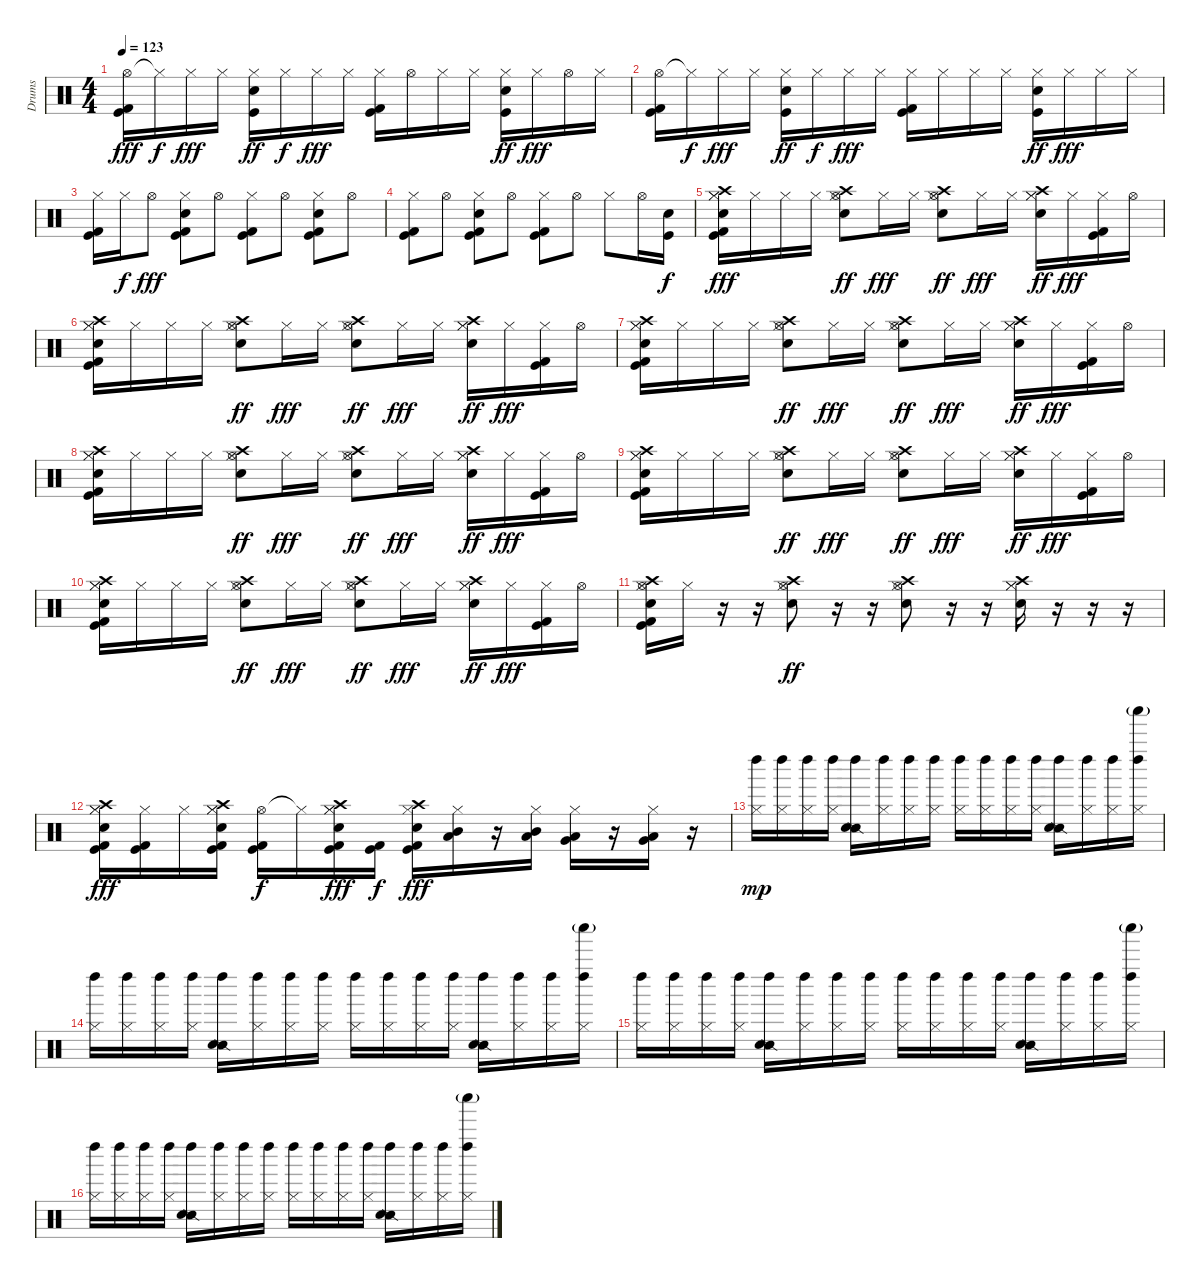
\track ("Drums" "Drums") {instrument percussion}
\staff {score}
\articulation defaults
\ts (4 4)
\tempo 123
\clef neutral
\ks c
("Hi-Hat (open)" "Kick (hit) 2" "Kick (hit)").16{dy fff} "Hi-Hat (closed)"{t}.16{dy f} "Hi-Hat (closed)".16{dy fff} "Hi-Hat (closed)".16 ("Hi-Hat (closed)" "Snare (hit) 2" "Kick (hit)").16{dy ff} "Hi-Hat (closed)".16{dy f} "Hi-Hat (closed)".16{dy fff} "Hi-Hat (closed)".16 ("Hi-Hat (closed)" "Kick (hit) 2" "Kick (hit)").16 "Hi-Hat (open)".16 "Hi-Hat (closed)".16 "Hi-Hat (closed)".16 ("Hi-Hat (closed)" "Snare (hit) 2" "Kick (hit)").16{dy ff} "Hi-Hat (closed)".16{dy fff} "Hi-Hat (open)".16 "Hi-Hat (closed)".16 |
("Hi-Hat (open)" "Kick (hit) 2" "Kick (hit)").16 "Hi-Hat (closed)"{t}.16{dy f} "Hi-Hat (closed)".16{dy fff} "Hi-Hat (closed)".16 ("Hi-Hat (closed)" "Snare (hit) 2" "Kick (hit)").16{dy ff} "Hi-Hat (closed)".16{dy f} "Hi-Hat (closed)".16{dy fff} "Hi-Hat (closed)".16 ("Hi-Hat (closed)" "Kick (hit) 2" "Kick (hit)").16 "Hi-Hat (closed)".16 "Hi-Hat (closed)".16 "Hi-Hat (closed)".16 ("Hi-Hat (closed)" "Snare (hit) 2" "Kick (hit)").16{dy ff} "Hi-Hat (closed)".16{dy fff} "Hi-Hat (closed)".16 "Hi-Hat (closed)".16 |
("Hi-Hat (closed)" "Kick (hit)" "Kick (hit) 2").16 "Hi-Hat (closed)".16{dy f} "Hi-Hat (open)".8{dy fff} ("Hi-Hat (closed)" "Snare (hit) 2" "Kick (hit)" "Kick (hit) 2").8 "Hi-Hat (open)".8 ("Hi-Hat (closed)" "Kick (hit)" "Kick (hit) 2").8 "Hi-Hat (open)".8 ("Hi-Hat (closed)" "Snare (hit) 2" "Kick (hit)" "Kick (hit) 2").8 "Hi-Hat (open)".8 |
("Hi-Hat (closed)" "Kick (hit)" "Kick (hit) 2").8 "Hi-Hat (open)".8 ("Hi-Hat (closed)" "Snare (hit) 2" "Kick (hit)" "Kick (hit) 2").8 "Hi-Hat (open)".8 ("Hi-Hat (closed)" "Kick (hit)" "Kick (hit) 2").8 "Hi-Hat (open)".8 "Hi-Hat (closed)".8 "Hi-Hat (open)".16 ("Snare (hit) 2" "Kick (hit)").16{dy f} |
("Crash high (hit)" "Hi-Hat (closed)" "Hi-Hat (closed)" "Snare (hit) 2" "Kick (hit)" "Kick (hit) 2").16{dy fff} "Hi-Hat (closed)".16 "Hi-Hat (closed)".16 "Hi-Hat (closed)".16 ("Crash high (hit)" "Hi-Hat (closed)" "Hi-Hat (open)" "Snare (hit) 2").8{dy ff} "Hi-Hat (closed)".16{dy fff} "Hi-Hat (closed)".16 ("Crash high (hit)" "Hi-Hat (closed)" "Hi-Hat (open)" "Snare (hit) 2").8{dy ff} "Hi-Hat (closed)".16{dy fff} "Hi-Hat (closed)".16 ("Crash high (hit)" "Hi-Hat (closed)" "Hi-Hat (closed)" "Snare (hit) 2").16{dy ff} "Hi-Hat (closed)".16{dy fff} ("Hi-Hat (closed)" "Kick (hit)" "Kick (hit) 2").16 "Hi-Hat (open)".16 |
("Crash high (hit)" "Hi-Hat (closed)" "Hi-Hat (closed)" "Snare (hit) 2" "Kick (hit)" "Kick (hit) 2").16 "Hi-Hat (closed)".16 "Hi-Hat (closed)".16 "Hi-Hat (closed)".16 ("Crash high (hit)" "Hi-Hat (closed)" "Hi-Hat (open)" "Snare (hit) 2").8{dy ff} "Hi-Hat (closed)".16{dy fff} "Hi-Hat (closed)".16 ("Crash high (hit)" "Hi-Hat (closed)" "Hi-Hat (open)" "Snare (hit) 2").8{dy ff} "Hi-Hat (closed)".16{dy fff} "Hi-Hat (closed)".16 ("Crash high (hit)" "Hi-Hat (closed)" "Hi-Hat (closed)" "Snare (hit) 2").16{dy ff} "Hi-Hat (closed)".16{dy fff} ("Hi-Hat (closed)" "Kick (hit)" "Kick (hit) 2").16 "Hi-Hat (open)".16 |
("Crash high (hit)" "Hi-Hat (closed)" "Hi-Hat (closed)" "Snare (hit) 2" "Kick (hit)" "Kick (hit) 2").16 "Hi-Hat (closed)".16 "Hi-Hat (closed)".16 "Hi-Hat (closed)".16 ("Crash high (hit)" "Hi-Hat (closed)" "Hi-Hat (open)" "Snare (hit) 2").8{dy ff} "Hi-Hat (closed)".16{dy fff} "Hi-Hat (closed)".16 ("Crash high (hit)" "Hi-Hat (closed)" "Hi-Hat (open)" "Snare (hit) 2").8{dy ff} "Hi-Hat (closed)".16{dy fff} "Hi-Hat (closed)".16 ("Crash high (hit)" "Hi-Hat (closed)" "Hi-Hat (closed)" "Snare (hit) 2").16{dy ff} "Hi-Hat (closed)".16{dy fff} ("Hi-Hat (closed)" "Kick (hit)" "Kick (hit) 2").16 "Hi-Hat (open)".16 |
("Crash high (hit)" "Hi-Hat (closed)" "Hi-Hat (closed)" "Snare (hit) 2" "Kick (hit)" "Kick (hit) 2").16 "Hi-Hat (closed)".16 "Hi-Hat (closed)".16 "Hi-Hat (closed)".16 ("Crash high (hit)" "Hi-Hat (closed)" "Hi-Hat (open)" "Snare (hit) 2").8{dy ff} "Hi-Hat (closed)".16{dy fff} "Hi-Hat (closed)".16 ("Crash high (hit)" "Hi-Hat (closed)" "Hi-Hat (open)" "Snare (hit) 2").8{dy ff} "Hi-Hat (closed)".16{dy fff} "Hi-Hat (closed)".16 ("Crash high (hit)" "Hi-Hat (closed)" "Hi-Hat (closed)" "Snare (hit) 2").16{dy ff} "Hi-Hat (closed)".16{dy fff} ("Hi-Hat (closed)" "Kick (hit)" "Kick (hit) 2").16 "Hi-Hat (open)".16 |
("Crash high (hit)" "Hi-Hat (closed)" "Hi-Hat (closed)" "Snare (hit) 2" "Kick (hit)" "Kick (hit) 2").16 "Hi-Hat (closed)".16 "Hi-Hat (closed)".16 "Hi-Hat (closed)".16 ("Crash high (hit)" "Hi-Hat (closed)" "Hi-Hat (open)" "Snare (hit) 2").8{dy ff} "Hi-Hat (closed)".16{dy fff} "Hi-Hat (closed)".16 ("Crash high (hit)" "Hi-Hat (closed)" "Hi-Hat (open)" "Snare (hit) 2").8{dy ff} "Hi-Hat (closed)".16{dy fff} "Hi-Hat (closed)".16 ("Crash high (hit)" "Hi-Hat (closed)" "Hi-Hat (closed)" "Snare (hit) 2").16{dy ff} "Hi-Hat (closed)".16{dy fff} ("Hi-Hat (closed)" "Kick (hit)" "Kick (hit) 2").16 "Hi-Hat (open)".16 |
("Crash high (hit)" "Hi-Hat (closed)" "Hi-Hat (closed)" "Snare (hit) 2" "Kick (hit)" "Kick (hit) 2").16 "Hi-Hat (closed)".16 "Hi-Hat (closed)".16 "Hi-Hat (closed)".16 ("Crash high (hit)" "Hi-Hat (closed)" "Hi-Hat (open)" "Snare (hit) 2").8{dy ff} "Hi-Hat (closed)".16{dy fff} "Hi-Hat (closed)".16 ("Crash high (hit)" "Hi-Hat (closed)" "Hi-Hat (open)" "Snare (hit) 2").8{dy ff} "Hi-Hat (closed)".16{dy fff} "Hi-Hat (closed)".16 ("Crash high (hit)" "Hi-Hat (closed)" "Hi-Hat (closed)" "Snare (hit) 2").16{dy ff} "Hi-Hat (closed)".16{dy fff} ("Hi-Hat (closed)" "Kick (hit)" "Kick (hit) 2").16 "Hi-Hat (open)".16 |
("Crash high (hit)" "Hi-Hat (closed)" "Hi-Hat (open)" "Snare (hit) 2" "Kick (hit)" "Kick (hit) 2").16 "Hi-Hat (closed)".16 r.16 r.16 ("Crash high (hit)" "Hi-Hat (closed)" "Hi-Hat (open)" "Snare (hit) 2").8{dy ff} r.16 r.16 ("Crash high (hit)" "Hi-Hat (closed)" "Hi-Hat (open)" "Snare (hit) 2").8 r.16 r.16 ("Crash high (hit)" "Hi-Hat (closed)" "Hi-Hat (closed)" "Snare (hit) 2").16 r.16 r.16 r.16 |
("Crash high (hit)" "Hi-Hat (closed)" "Hi-Hat (closed)" "Snare (hit) 2" "Kick (hit)" "Kick (hit) 2").16{dy fff} ("Hi-Hat (closed)" "Kick (hit)" "Kick (hit) 2").16 "Hi-Hat (closed)".16 ("Crash high (hit)" "Hi-Hat (closed)" "Hi-Hat (closed)" "Snare (hit) 2" "Kick (hit)" "Kick (hit) 2").16 ("Hi-Hat (open)" "Kick (hit)" "Kick (hit) 2").16{dy f} "Hi-Hat (closed)"{t}.16 ("Crash high (hit)" "Hi-Hat (closed)" "Hi-Hat (closed)" "Snare (hit) 2" "Kick (hit)" "Kick (hit) 2").16{dy fff} ("Kick (hit)" "Kick (hit) 2").16{dy f} ("Crash high (hit)" "Hi-Hat (closed)" "Snare (hit) 2" "Kick (hit)" "Kick (hit) 2").16{dy fff} ("Hi-Hat (closed)" "Mid Tom (hit)" "Low Tom (hit)").16 r.16 ("Hi-Hat (closed)" "Mid Tom (hit)" "Low Tom (hit)").16 ("Hi-Hat (closed)" "Very Low Tom (hit)" "Low Tom (hit)").16 r.16 ("Hi-Hat (closed)" "Very Low Tom (hit)" "Low Tom (hit)").16 r.16 |
("Left Maraca (hit)" "Hi-Hat (closed)").16{dy mp volume 13} ("Left Maraca (hit)" "Hi-Hat (closed)").16 ("Left Maraca (hit)" "Hi-Hat (closed)").16 ("Left Maraca (hit)" "Hi-Hat (closed)").16 ("Left Maraca (hit)" "Snare (side stick) 2" "Hand Clap (hit)").16 ("Left Maraca (hit)" "Hi-Hat (closed)").16 ("Left Maraca (hit)" "Hi-Hat (closed)").16 ("Left Maraca (hit)" "Hi-Hat (closed)").16 ("Left Maraca (hit)" "Hi-Hat (closed)").16 ("Left Maraca (hit)" "Hi-Hat (closed)").16 ("Left Maraca (hit)" "Hi-Hat (closed)").16 ("Left Maraca (hit)" "Hi-Hat (closed)").16 ("Left Maraca (hit)" "Snare (side stick) 2" "Hand Clap (hit)").16 ("Left Maraca (hit)" "Hi-Hat (closed)").16 ("Left Maraca (hit)" "Hi-Hat (closed)").16 ("Shaker (hit)"{g} "Left Maraca (hit)" "Hi-Hat (closed)").16 |
("Left Maraca (hit)" "Hi-Hat (closed)").16 ("Left Maraca (hit)" "Hi-Hat (closed)").16 ("Left Maraca (hit)" "Hi-Hat (closed)").16 ("Left Maraca (hit)" "Hi-Hat (closed)").16 ("Left Maraca (hit)" "Snare (side stick) 2" "Hand Clap (hit)").16 ("Left Maraca (hit)" "Hi-Hat (closed)").16 ("Left Maraca (hit)" "Hi-Hat (closed)").16 ("Left Maraca (hit)" "Hi-Hat (closed)").16 ("Left Maraca (hit)" "Hi-Hat (closed)").16 ("Left Maraca (hit)" "Hi-Hat (closed)").16 ("Left Maraca (hit)" "Hi-Hat (closed)").16 ("Left Maraca (hit)" "Hi-Hat (closed)").16 ("Left Maraca (hit)" "Snare (side stick) 2" "Hand Clap (hit)").16 ("Left Maraca (hit)" "Hi-Hat (closed)").16 ("Left Maraca (hit)" "Hi-Hat (closed)").16 ("Shaker (hit)"{g} "Left Maraca (hit)" "Hi-Hat (closed)").16 |
("Left Maraca (hit)" "Hi-Hat (closed)").16 ("Left Maraca (hit)" "Hi-Hat (closed)").16 ("Left Maraca (hit)" "Hi-Hat (closed)").16 ("Left Maraca (hit)" "Hi-Hat (closed)").16 ("Left Maraca (hit)" "Snare (side stick) 2" "Hand Clap (hit)").16 ("Left Maraca (hit)" "Hi-Hat (closed)").16 ("Left Maraca (hit)" "Hi-Hat (closed)").16 ("Left Maraca (hit)" "Hi-Hat (closed)").16 ("Left Maraca (hit)" "Hi-Hat (closed)").16 ("Left Maraca (hit)" "Hi-Hat (closed)").16 ("Left Maraca (hit)" "Hi-Hat (closed)").16 ("Left Maraca (hit)" "Hi-Hat (closed)").16 ("Left Maraca (hit)" "Snare (side stick) 2" "Hand Clap (hit)").16 ("Left Maraca (hit)" "Hi-Hat (closed)").16 ("Left Maraca (hit)" "Hi-Hat (closed)").16 ("Shaker (hit)"{g} "Left Maraca (hit)" "Hi-Hat (closed)").16 |
("Left Maraca (hit)" "Hi-Hat (closed)").16 ("Left Maraca (hit)" "Hi-Hat (closed)").16 ("Left Maraca (hit)" "Hi-Hat (closed)").16 ("Left Maraca (hit)" "Hi-Hat (closed)").16 ("Left Maraca (hit)" "Snare (side stick) 2" "Hand Clap (hit)").16 ("Left Maraca (hit)" "Hi-Hat (closed)").16 ("Left Maraca (hit)" "Hi-Hat (closed)").16 ("Left Maraca (hit)" "Hi-Hat (closed)").16 ("Left Maraca (hit)" "Hi-Hat (closed)").16 ("Left Maraca (hit)" "Hi-Hat (closed)").16 ("Left Maraca (hit)" "Hi-Hat (closed)").16 ("Left Maraca (hit)" "Hi-Hat (closed)").16 ("Left Maraca (hit)" "Snare (side stick) 2" "Hand Clap (hit)").16 ("Left Maraca (hit)" "Hi-Hat (closed)").16 ("Left Maraca (hit)" "Hi-Hat (closed)").16 ("Shaker (hit)"{g} "Left Maraca (hit)" "Hi-Hat (closed)").16
